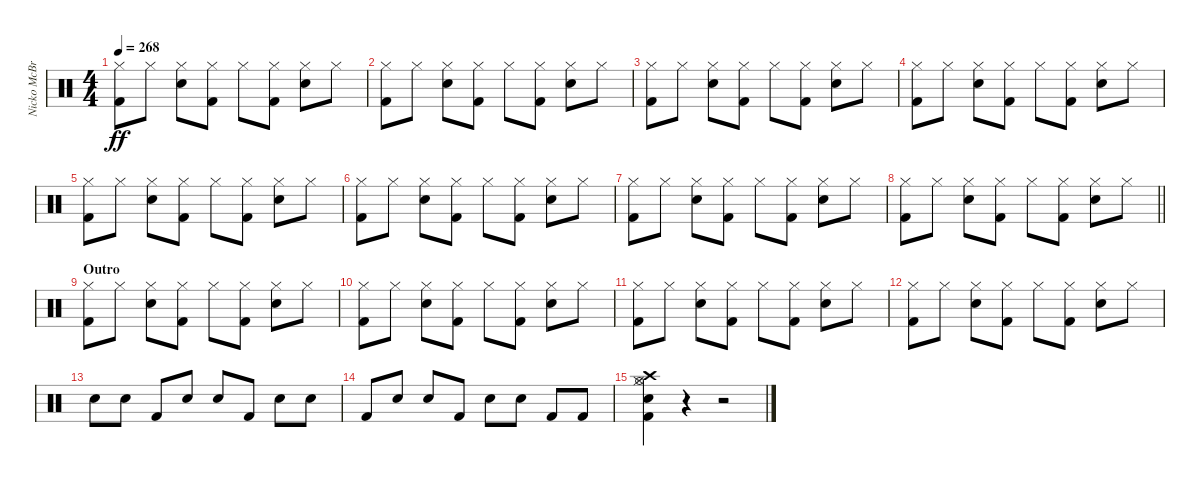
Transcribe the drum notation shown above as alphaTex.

\track ("Nicko McBrain" "Nicko McBr") {instrument percussion}
\staff {score}
\articulation defaults
\ts (4 4)
\tempo 268
\clef neutral
\ks c
("Kick (hit) 2" "Hi-Hat (closed)").8{dy ff} "Hi-Hat (closed)".8 ("Snare (hit) 2" "Hi-Hat (closed)").8 ("Kick (hit) 2" "Hi-Hat (closed)").8 "Hi-Hat (closed)".8 ("Kick (hit) 2" "Hi-Hat (closed)").8 ("Snare (hit) 2" "Hi-Hat (closed)").8 "Hi-Hat (closed)".8 |
("Kick (hit) 2" "Hi-Hat (closed)").8 "Hi-Hat (closed)".8 ("Snare (hit) 2" "Hi-Hat (closed)").8 ("Kick (hit) 2" "Hi-Hat (closed)").8 "Hi-Hat (closed)".8 ("Kick (hit) 2" "Hi-Hat (closed)").8 ("Snare (hit) 2" "Hi-Hat (closed)").8 "Hi-Hat (closed)".8 |
("Kick (hit) 2" "Hi-Hat (closed)").8 "Hi-Hat (closed)".8 ("Snare (hit) 2" "Hi-Hat (closed)").8 ("Kick (hit) 2" "Hi-Hat (closed)").8 "Hi-Hat (closed)".8 ("Kick (hit) 2" "Hi-Hat (closed)").8 ("Snare (hit) 2" "Hi-Hat (closed)").8 "Hi-Hat (closed)".8 |
("Kick (hit) 2" "Hi-Hat (closed)").8 "Hi-Hat (closed)".8 ("Snare (hit) 2" "Hi-Hat (closed)").8 ("Kick (hit) 2" "Hi-Hat (closed)").8 "Hi-Hat (closed)".8 ("Kick (hit) 2" "Hi-Hat (closed)").8 ("Snare (hit) 2" "Hi-Hat (closed)").8 "Hi-Hat (closed)".8 |
("Kick (hit) 2" "Hi-Hat (closed)").8 "Hi-Hat (closed)".8 ("Snare (hit) 2" "Hi-Hat (closed)").8 ("Kick (hit) 2" "Hi-Hat (closed)").8 "Hi-Hat (closed)".8 ("Kick (hit) 2" "Hi-Hat (closed)").8 ("Snare (hit) 2" "Hi-Hat (closed)").8 "Hi-Hat (closed)".8 |
("Kick (hit) 2" "Hi-Hat (closed)").8 "Hi-Hat (closed)".8 ("Snare (hit) 2" "Hi-Hat (closed)").8 ("Kick (hit) 2" "Hi-Hat (closed)").8 "Hi-Hat (closed)".8 ("Kick (hit) 2" "Hi-Hat (closed)").8 ("Snare (hit) 2" "Hi-Hat (closed)").8 "Hi-Hat (closed)".8 |
("Kick (hit) 2" "Hi-Hat (closed)").8 "Hi-Hat (closed)".8 ("Snare (hit) 2" "Hi-Hat (closed)").8 ("Kick (hit) 2" "Hi-Hat (closed)").8 "Hi-Hat (closed)".8 ("Kick (hit) 2" "Hi-Hat (closed)").8 ("Snare (hit) 2" "Hi-Hat (closed)").8 "Hi-Hat (closed)".8 |
\barLineRight lightlight
("Kick (hit) 2" "Hi-Hat (closed)").8 "Hi-Hat (closed)".8 ("Snare (hit) 2" "Hi-Hat (closed)").8 ("Kick (hit) 2" "Hi-Hat (closed)").8 "Hi-Hat (closed)".8 ("Kick (hit) 2" "Hi-Hat (closed)").8 ("Snare (hit) 2" "Hi-Hat (closed)").8 "Hi-Hat (closed)".8 |
\section ("" "Outro")
("Kick (hit) 2" "Hi-Hat (closed)").8 "Hi-Hat (closed)".8 ("Snare (hit) 2" "Hi-Hat (closed)").8 ("Kick (hit) 2" "Hi-Hat (closed)").8 "Hi-Hat (closed)".8 ("Kick (hit) 2" "Hi-Hat (closed)").8 ("Snare (hit) 2" "Hi-Hat (closed)").8 "Hi-Hat (closed)".8 |
("Kick (hit) 2" "Hi-Hat (closed)").8 "Hi-Hat (closed)".8 ("Snare (hit) 2" "Hi-Hat (closed)").8 ("Kick (hit) 2" "Hi-Hat (closed)").8 "Hi-Hat (closed)".8 ("Kick (hit) 2" "Hi-Hat (closed)").8 ("Snare (hit) 2" "Hi-Hat (closed)").8 "Hi-Hat (closed)".8 |
("Kick (hit) 2" "Hi-Hat (closed)").8 "Hi-Hat (closed)".8 ("Snare (hit) 2" "Hi-Hat (closed)").8 ("Kick (hit) 2" "Hi-Hat (closed)").8 "Hi-Hat (closed)".8 ("Kick (hit) 2" "Hi-Hat (closed)").8 ("Snare (hit) 2" "Hi-Hat (closed)").8 "Hi-Hat (closed)".8 |
("Kick (hit) 2" "Hi-Hat (closed)").8 "Hi-Hat (closed)".8 ("Snare (hit) 2" "Hi-Hat (closed)").8 ("Kick (hit) 2" "Hi-Hat (closed)").8 "Hi-Hat (closed)".8 ("Kick (hit) 2" "Hi-Hat (closed)").8 ("Snare (hit) 2" "Hi-Hat (closed)").8 "Hi-Hat (closed)".8 |
"Snare (hit) 2".8 "Snare (hit) 2".8 "Kick (hit) 2".8 "Snare (hit) 2".8 "Snare (hit) 2".8 "Kick (hit) 2".8 "Snare (hit) 2".8 "Snare (hit) 2".8 |
"Kick (hit) 2".8 "Snare (hit) 2".8 "Snare (hit) 2".8 "Kick (hit) 2".8 "Snare (hit) 2".8 "Snare (hit) 2".8 "Kick (hit) 2".8 "Kick (hit) 2".8 |
("Kick (hit) 2" "Snare (hit) 2" "Hi-Hat (closed)" "Hi-Hat (open)" "Crash high (hit)").4 r.4 r.2
